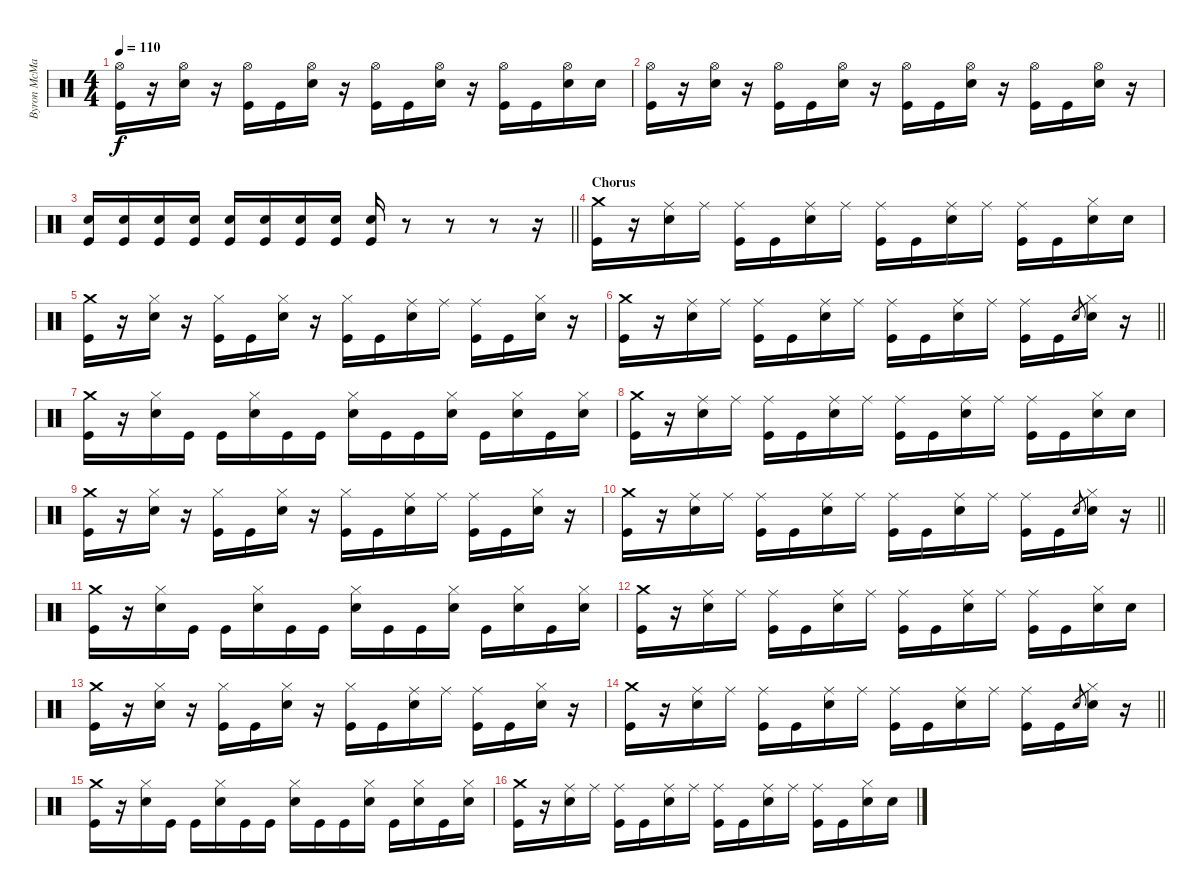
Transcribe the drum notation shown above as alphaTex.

\track ("Byron McMackin" "Byron McMa") {instrument percussion}
\staff {score}
\articulation defaults
\ts (4 4)
\tempo 110
\clef neutral
\ks c
("Hi-Hat (open)" "Kick (hit)").16{dy f} r.16 ("Hi-Hat (open)" "Electric Snare (hit)").16 r.16 ("Hi-Hat (open)" "Kick (hit)").16 "Kick (hit)".16 ("Hi-Hat (open)" "Electric Snare (hit)").16 r.16 ("Hi-Hat (open)" "Kick (hit)").16 "Kick (hit)".16 ("Hi-Hat (open)" "Electric Snare (hit)").16 r.16 ("Hi-Hat (open)" "Kick (hit)").16 "Kick (hit)".16 ("Hi-Hat (open)" "Electric Snare (hit)").16 "Electric Snare (hit)".16 |
("Hi-Hat (open)" "Kick (hit)").16 r.16 ("Hi-Hat (open)" "Electric Snare (hit)").16 r.16 ("Hi-Hat (open)" "Kick (hit)").16 "Kick (hit)".16 ("Hi-Hat (open)" "Electric Snare (hit)").16 r.16 ("Hi-Hat (open)" "Kick (hit)").16 "Kick (hit)".16 ("Hi-Hat (open)" "Electric Snare (hit)").16 r.16 ("Hi-Hat (open)" "Kick (hit)").16 "Kick (hit)".16 ("Hi-Hat (open)" "Electric Snare (hit)").16 r.16 |
\barLineRight lightlight
("Electric Snare (hit)" "Kick (hit)").16 ("Electric Snare (hit)" "Kick (hit)").16 ("Electric Snare (hit)" "Kick (hit)").16 ("Electric Snare (hit)" "Kick (hit)").16 ("Electric Snare (hit)" "Kick (hit)").16 ("Electric Snare (hit)" "Kick (hit)").16 ("Electric Snare (hit)" "Kick (hit)").16 ("Electric Snare (hit)" "Kick (hit)").16 ("Electric Snare (hit)" "Kick (hit)").16 r.8 r.8 r.8 r.16 |
\section ("" "Chorus")
("Crash medium (hit)" "Kick (hit)").16 r.16 ("Ride (middle)" "Electric Snare (hit)").16 "Ride (middle)".16 ("Ride (middle)" "Kick (hit)").16 "Kick (hit)".16 ("Ride (middle)" "Electric Snare (hit)").16 "Ride (middle)".16 ("Ride (middle)" "Kick (hit)").16 "Kick (hit)".16 ("Ride (middle)" "Electric Snare (hit)").16 "Ride (middle)".16 ("Ride (middle)" "Kick (hit)").16 "Kick (hit)".16 ("Hi-Hat (closed)" "Electric Snare (hit)").16 "Electric Snare (hit)".16 |
("Crash medium (hit)" "Kick (hit)").16 r.16 ("Hi-Hat (closed)" "Electric Snare (hit)").16 r.16 ("Hi-Hat (closed)" "Kick (hit)").16 "Kick (hit)".16 ("Hi-Hat (closed)" "Electric Snare (hit)").16 r.16 ("Hi-Hat (closed)" "Kick (hit)").16 "Kick (hit)".16 ("Ride (middle)" "Electric Snare (hit)").16 "Ride (middle)".16 ("Ride (middle)" "Kick (hit)").16 "Kick (hit)".16 ("Hi-Hat (closed)" "Electric Snare (hit)").16 r.16 |
\barLineRight lightlight
("Crash medium (hit)" "Kick (hit)").16 r.16 ("Ride (middle)" "Electric Snare (hit)").16 "Ride (middle)".16 ("Ride (middle)" "Kick (hit)").16 "Kick (hit)".16 ("Ride (middle)" "Electric Snare (hit)").16 "Ride (middle)".16 ("Ride (middle)" "Kick (hit)").16 "Kick (hit)".16 ("Ride (middle)" "Electric Snare (hit)").16 "Ride (middle)".16 ("Ride (middle)" "Kick (hit)").16 "Kick (hit)".16 "Electric Snare (hit)".8{gr} ("Hi-Hat (closed)" "Electric Snare (hit)").16 r.16 |
("Crash medium (hit)" "Kick (hit)").16 r.16 ("Hi-Hat (closed)" "Electric Snare (hit)").16 "Kick (hit)".16 "Kick (hit)".16 ("Hi-Hat (closed)" "Electric Snare (hit)").16 "Kick (hit)".16 "Kick (hit)".16 ("Hi-Hat (closed)" "Electric Snare (hit)").16 "Kick (hit)".16 "Kick (hit)".16 ("Hi-Hat (closed)" "Electric Snare (hit)").16 "Kick (hit)".16 ("Hi-Hat (closed)" "Electric Snare (hit)").16 "Kick (hit)".16 ("Hi-Hat (closed)" "Electric Snare (hit)").16 |
("Crash medium (hit)" "Kick (hit)").16 r.16 ("Ride (middle)" "Electric Snare (hit)").16 "Ride (middle)".16 ("Ride (middle)" "Kick (hit)").16 "Kick (hit)".16 ("Ride (middle)" "Electric Snare (hit)").16 "Ride (middle)".16 ("Ride (middle)" "Kick (hit)").16 "Kick (hit)".16 ("Ride (middle)" "Electric Snare (hit)").16 "Ride (middle)".16 ("Ride (middle)" "Kick (hit)").16 "Kick (hit)".16 ("Hi-Hat (closed)" "Electric Snare (hit)").16 "Electric Snare (hit)".16 |
("Crash medium (hit)" "Kick (hit)").16 r.16 ("Hi-Hat (closed)" "Electric Snare (hit)").16 r.16 ("Hi-Hat (closed)" "Kick (hit)").16 "Kick (hit)".16 ("Hi-Hat (closed)" "Electric Snare (hit)").16 r.16 ("Hi-Hat (closed)" "Kick (hit)").16 "Kick (hit)".16 ("Ride (middle)" "Electric Snare (hit)").16 "Ride (middle)".16 ("Ride (middle)" "Kick (hit)").16 "Kick (hit)".16 ("Hi-Hat (closed)" "Electric Snare (hit)").16 r.16 |
\barLineRight lightlight
("Crash medium (hit)" "Kick (hit)").16 r.16 ("Ride (middle)" "Electric Snare (hit)").16 "Ride (middle)".16 ("Ride (middle)" "Kick (hit)").16 "Kick (hit)".16 ("Ride (middle)" "Electric Snare (hit)").16 "Ride (middle)".16 ("Ride (middle)" "Kick (hit)").16 "Kick (hit)".16 ("Ride (middle)" "Electric Snare (hit)").16 "Ride (middle)".16 ("Ride (middle)" "Kick (hit)").16 "Kick (hit)".16 "Electric Snare (hit)".8{gr} ("Hi-Hat (closed)" "Electric Snare (hit)").16 r.16 |
("Crash medium (hit)" "Kick (hit)").16 r.16 ("Hi-Hat (closed)" "Electric Snare (hit)").16 "Kick (hit)".16 "Kick (hit)".16 ("Hi-Hat (closed)" "Electric Snare (hit)").16 "Kick (hit)".16 "Kick (hit)".16 ("Hi-Hat (closed)" "Electric Snare (hit)").16 "Kick (hit)".16 "Kick (hit)".16 ("Hi-Hat (closed)" "Electric Snare (hit)").16 "Kick (hit)".16 ("Hi-Hat (closed)" "Electric Snare (hit)").16 "Kick (hit)".16 ("Hi-Hat (closed)" "Electric Snare (hit)").16 |
("Crash medium (hit)" "Kick (hit)").16 r.16 ("Ride (middle)" "Electric Snare (hit)").16 "Ride (middle)".16 ("Ride (middle)" "Kick (hit)").16 "Kick (hit)".16 ("Ride (middle)" "Electric Snare (hit)").16 "Ride (middle)".16 ("Ride (middle)" "Kick (hit)").16 "Kick (hit)".16 ("Ride (middle)" "Electric Snare (hit)").16 "Ride (middle)".16 ("Ride (middle)" "Kick (hit)").16 "Kick (hit)".16 ("Hi-Hat (closed)" "Electric Snare (hit)").16 "Electric Snare (hit)".16 |
("Crash medium (hit)" "Kick (hit)").16 r.16 ("Hi-Hat (closed)" "Electric Snare (hit)").16 r.16 ("Hi-Hat (closed)" "Kick (hit)").16 "Kick (hit)".16 ("Hi-Hat (closed)" "Electric Snare (hit)").16 r.16 ("Hi-Hat (closed)" "Kick (hit)").16 "Kick (hit)".16 ("Ride (middle)" "Electric Snare (hit)").16 "Ride (middle)".16 ("Ride (middle)" "Kick (hit)").16 "Kick (hit)".16 ("Hi-Hat (closed)" "Electric Snare (hit)").16 r.16 |
\barLineRight lightlight
("Crash medium (hit)" "Kick (hit)").16 r.16 ("Ride (middle)" "Electric Snare (hit)").16 "Ride (middle)".16 ("Ride (middle)" "Kick (hit)").16 "Kick (hit)".16 ("Ride (middle)" "Electric Snare (hit)").16 "Ride (middle)".16 ("Ride (middle)" "Kick (hit)").16 "Kick (hit)".16 ("Ride (middle)" "Electric Snare (hit)").16 "Ride (middle)".16 ("Ride (middle)" "Kick (hit)").16 "Kick (hit)".16 "Electric Snare (hit)".8{gr} ("Hi-Hat (closed)" "Electric Snare (hit)").16 r.16 |
("Crash medium (hit)" "Kick (hit)").16 r.16 ("Hi-Hat (closed)" "Electric Snare (hit)").16 "Kick (hit)".16 "Kick (hit)".16 ("Hi-Hat (closed)" "Electric Snare (hit)").16 "Kick (hit)".16 "Kick (hit)".16 ("Hi-Hat (closed)" "Electric Snare (hit)").16 "Kick (hit)".16 "Kick (hit)".16 ("Hi-Hat (closed)" "Electric Snare (hit)").16 "Kick (hit)".16 ("Hi-Hat (closed)" "Electric Snare (hit)").16 "Kick (hit)".16 ("Hi-Hat (closed)" "Electric Snare (hit)").16 |
("Crash medium (hit)" "Kick (hit)").16 r.16 ("Ride (middle)" "Electric Snare (hit)").16 "Ride (middle)".16 ("Ride (middle)" "Kick (hit)").16 "Kick (hit)".16 ("Ride (middle)" "Electric Snare (hit)").16 "Ride (middle)".16 ("Ride (middle)" "Kick (hit)").16 "Kick (hit)".16 ("Ride (middle)" "Electric Snare (hit)").16 "Ride (middle)".16 ("Ride (middle)" "Kick (hit)").16 "Kick (hit)".16 ("Hi-Hat (closed)" "Electric Snare (hit)").16 "Electric Snare (hit)".16
